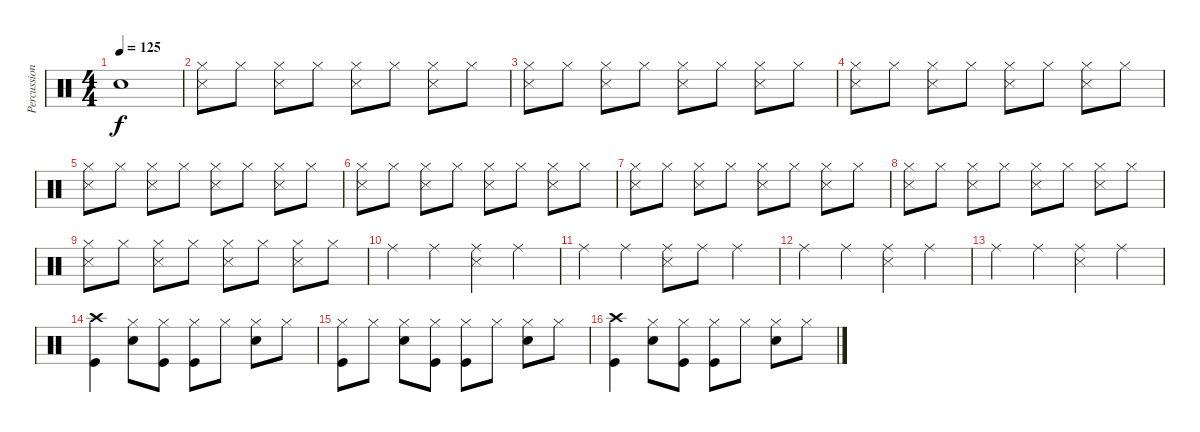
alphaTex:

\track ("Percussion" "Percussion") {instrument percussion}
\staff {score}
\articulation defaults
\ts (4 4)
\tempo 125
\clef neutral
\ks c "Snare (hit)"{t}.1{dy f}
|
("Hi-Hat (closed)" "Snare (side stick) 3").8 "Hi-Hat (closed)".8 ("Hi-Hat (closed)" "Snare (side stick) 3").8 "Hi-Hat (closed)".8 ("Hi-Hat (closed)" "Snare (side stick) 3").8 "Hi-Hat (closed)".8 ("Hi-Hat (closed)" "Snare (side stick) 3").8 "Hi-Hat (closed)".8 |
("Hi-Hat (closed)" "Snare (side stick) 3").8 "Hi-Hat (closed)".8 ("Hi-Hat (closed)" "Snare (side stick) 3").8 "Hi-Hat (closed)".8 ("Hi-Hat (closed)" "Snare (side stick) 3").8 "Hi-Hat (closed)".8 ("Hi-Hat (closed)" "Snare (side stick) 3").8 "Hi-Hat (closed)".8 |
("Hi-Hat (closed)" "Snare (side stick) 3").8 "Hi-Hat (closed)".8 ("Hi-Hat (closed)" "Snare (side stick) 3").8 "Hi-Hat (closed)".8 ("Hi-Hat (closed)" "Snare (side stick) 3").8 "Hi-Hat (closed)".8 ("Hi-Hat (closed)" "Snare (side stick) 3").8 "Hi-Hat (closed)".8 |
("Hi-Hat (closed)" "Snare (side stick) 3").8 "Hi-Hat (closed)".8 ("Hi-Hat (closed)" "Snare (side stick) 3").8 "Hi-Hat (closed)".8 ("Hi-Hat (closed)" "Snare (side stick) 3").8 "Hi-Hat (closed)".8 ("Hi-Hat (closed)" "Snare (side stick) 3").8 "Hi-Hat (closed)".8 |
("Hi-Hat (closed)" "Snare (side stick) 3").8 "Hi-Hat (closed)".8 ("Hi-Hat (closed)" "Snare (side stick) 3").8 "Hi-Hat (closed)".8 ("Hi-Hat (closed)" "Snare (side stick) 3").8 "Hi-Hat (closed)".8 ("Hi-Hat (closed)" "Snare (side stick) 3").8 "Hi-Hat (closed)".8 |
("Hi-Hat (closed)" "Snare (side stick) 3").8 "Hi-Hat (closed)".8 ("Hi-Hat (closed)" "Snare (side stick) 3").8 "Hi-Hat (closed)".8 ("Hi-Hat (closed)" "Snare (side stick) 3").8 "Hi-Hat (closed)".8 ("Hi-Hat (closed)" "Snare (side stick) 3").8 "Hi-Hat (closed)".8 |
("Hi-Hat (closed)" "Snare (side stick) 3").8 "Hi-Hat (closed)".8 ("Hi-Hat (closed)" "Snare (side stick) 3").8 "Hi-Hat (closed)".8 ("Hi-Hat (closed)" "Snare (side stick) 3").8 "Hi-Hat (closed)".8 ("Hi-Hat (closed)" "Snare (side stick) 3").8 "Hi-Hat (closed)".8 |
("Hi-Hat (closed)" "Snare (side stick) 3").8 "Hi-Hat (closed)".8 ("Hi-Hat (closed)" "Snare (side stick) 3").8 "Hi-Hat (closed)".8 ("Hi-Hat (closed)" "Snare (side stick) 3").8 "Hi-Hat (closed)".8 ("Hi-Hat (closed)" "Snare (side stick) 3").8 "Hi-Hat (closed)".8 |
"Ride (middle)".4 "Ride (middle)".4 ("Ride (middle)" "Snare (side stick) 3").4 "Ride (middle)".4 |
"Ride (middle)".4 "Ride (middle)".4 ("Ride (middle)" "Snare (side stick) 3").8 "Ride (middle)".8 "Ride (middle)".4 |
"Ride (middle)".4 "Ride (middle)".4 ("Ride (middle)" "Snare (side stick) 3").4 "Ride (middle)".4 |
"Ride (middle)".4 "Ride (middle)".4 ("Ride (middle)" "Snare (side stick) 3").4 "Ride (middle)".4 |
("Crash high (hit)" "Kick (hit)").4 ("Hi-Hat (closed)" "Electric Snare (hit)").8 ("Hi-Hat (closed)" "Kick (hit)").8 ("Hi-Hat (closed)" "Kick (hit)").8 "Hi-Hat (closed)".8 ("Hi-Hat (closed)" "Electric Snare (hit)").8 "Hi-Hat (closed)".8 |
("Hi-Hat (closed)" "Kick (hit)").8 "Hi-Hat (closed)".8 ("Hi-Hat (closed)" "Electric Snare (hit)").8 ("Hi-Hat (closed)" "Kick (hit)").8 ("Hi-Hat (closed)" "Kick (hit)").8 "Hi-Hat (closed)".8 ("Hi-Hat (closed)" "Electric Snare (hit)").8 "Hi-Hat (closed)".8 |
("Crash high (hit)" "Kick (hit)").4 ("Hi-Hat (closed)" "Electric Snare (hit)").8 ("Hi-Hat (closed)" "Kick (hit)").8 ("Hi-Hat (closed)" "Kick (hit)").8 "Hi-Hat (closed)".8 ("Hi-Hat (closed)" "Electric Snare (hit)").8 "Hi-Hat (closed)".8
